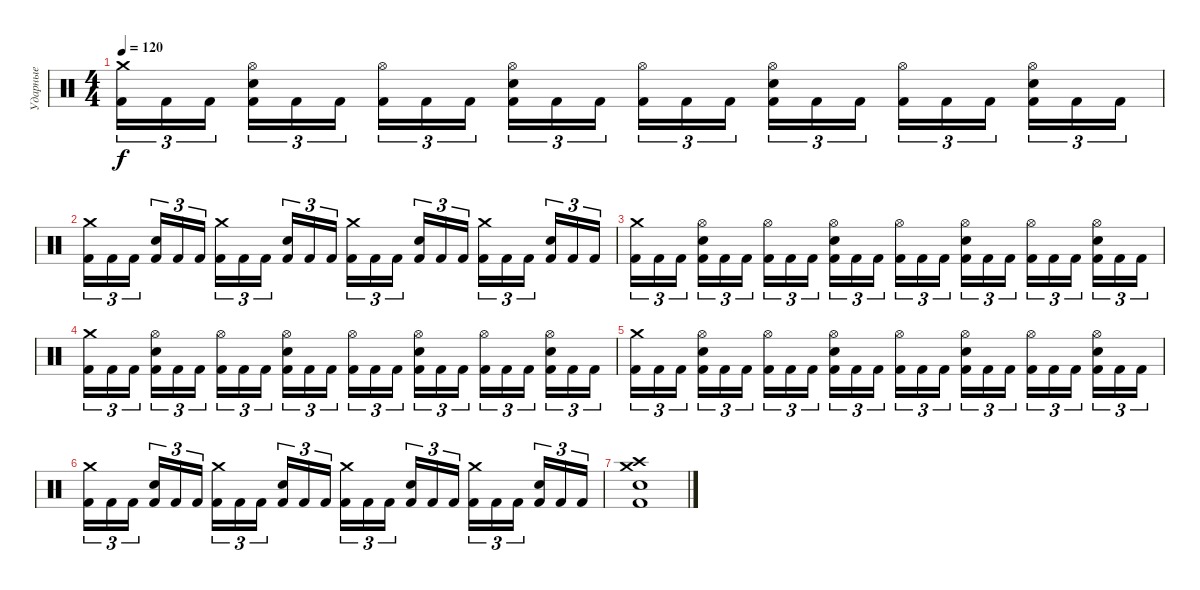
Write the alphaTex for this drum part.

\track ("Ударные" "Ударные") {instrument percussion}
\staff {score}
\articulation defaults
\ts (4 4)
\tempo 120
\clef neutral
\ks c
("Crash medium (hit)" "Kick (hit) 2").16{tu (3 2) dy f} "Kick (hit) 2".16{tu (3 2)} "Kick (hit) 2".16{tu (3 2) beam splitsecondary} ("Snare (hit) 2" "Kick (hit) 2" "Hi-Hat (open)").16{tu (3 2)} "Kick (hit) 2".16{tu (3 2)} "Kick (hit) 2".16{tu (3 2)} ("Hi-Hat (open)" "Kick (hit) 2").16{tu (3 2)} "Kick (hit) 2".16{tu (3 2)} "Kick (hit) 2".16{tu (3 2) beam splitsecondary} ("Snare (hit) 2" "Kick (hit) 2" "Hi-Hat (open)").16{tu (3 2)} "Kick (hit) 2".16{tu (3 2)} "Kick (hit) 2".16{tu (3 2)} ("Hi-Hat (open)" "Kick (hit) 2").16{tu (3 2)} "Kick (hit) 2".16{tu (3 2)} "Kick (hit) 2".16{tu (3 2) beam splitsecondary} ("Snare (hit) 2" "Kick (hit) 2" "Hi-Hat (open)").16{tu (3 2)} "Kick (hit) 2".16{tu (3 2)} "Kick (hit) 2".16{tu (3 2)} ("Hi-Hat (open)" "Kick (hit) 2").16{tu (3 2)} "Kick (hit) 2".16{tu (3 2)} "Kick (hit) 2".16{tu (3 2) beam splitsecondary} ("Snare (hit) 2" "Kick (hit) 2" "Hi-Hat (open)").16{tu (3 2)} "Kick (hit) 2".16{tu (3 2)} "Kick (hit) 2".16{tu (3 2)} |
("Crash medium (hit)" "Kick (hit) 2").16{tu (3 2)} "Kick (hit) 2".16{tu (3 2)} "Kick (hit) 2".16{tu (3 2) beam splitsecondary} ("Snare (hit) 2" "Kick (hit) 2").16{tu (3 2)} "Kick (hit) 2".16{tu (3 2)} "Kick (hit) 2".16{tu (3 2)} ("Kick (hit) 2" "Crash medium (hit)").16{tu (3 2)} "Kick (hit) 2".16{tu (3 2)} "Kick (hit) 2".16{tu (3 2) beam splitsecondary} ("Snare (hit) 2" "Kick (hit) 2").16{tu (3 2)} "Kick (hit) 2".16{tu (3 2)} "Kick (hit) 2".16{tu (3 2)} ("Kick (hit) 2" "Crash medium (hit)").16{tu (3 2)} "Kick (hit) 2".16{tu (3 2)} "Kick (hit) 2".16{tu (3 2) beam splitsecondary} ("Snare (hit) 2" "Kick (hit) 2").16{tu (3 2)} "Kick (hit) 2".16{tu (3 2)} "Kick (hit) 2".16{tu (3 2)} ("Kick (hit) 2" "Crash medium (hit)").16{tu (3 2)} "Kick (hit) 2".16{tu (3 2)} "Kick (hit) 2".16{tu (3 2) beam splitsecondary} ("Snare (hit) 2" "Kick (hit) 2").16{tu (3 2)} "Kick (hit) 2".16{tu (3 2)} "Kick (hit) 2".16{tu (3 2)} |
("Crash medium (hit)" "Kick (hit) 2").16{tu (3 2)} "Kick (hit) 2".16{tu (3 2)} "Kick (hit) 2".16{tu (3 2) beam splitsecondary} ("Snare (hit) 2" "Kick (hit) 2" "Hi-Hat (open)").16{tu (3 2)} "Kick (hit) 2".16{tu (3 2)} "Kick (hit) 2".16{tu (3 2)} ("Hi-Hat (open)" "Kick (hit) 2").16{tu (3 2)} "Kick (hit) 2".16{tu (3 2)} "Kick (hit) 2".16{tu (3 2) beam splitsecondary} ("Snare (hit) 2" "Kick (hit) 2" "Hi-Hat (open)").16{tu (3 2)} "Kick (hit) 2".16{tu (3 2)} "Kick (hit) 2".16{tu (3 2)} ("Hi-Hat (open)" "Kick (hit) 2").16{tu (3 2)} "Kick (hit) 2".16{tu (3 2)} "Kick (hit) 2".16{tu (3 2) beam splitsecondary} ("Snare (hit) 2" "Kick (hit) 2" "Hi-Hat (open)").16{tu (3 2)} "Kick (hit) 2".16{tu (3 2)} "Kick (hit) 2".16{tu (3 2)} ("Hi-Hat (open)" "Kick (hit) 2").16{tu (3 2)} "Kick (hit) 2".16{tu (3 2)} "Kick (hit) 2".16{tu (3 2) beam splitsecondary} ("Snare (hit) 2" "Kick (hit) 2" "Hi-Hat (open)").16{tu (3 2)} "Kick (hit) 2".16{tu (3 2)} "Kick (hit) 2".16{tu (3 2)} |
("Crash medium (hit)" "Kick (hit) 2").16{tu (3 2)} "Kick (hit) 2".16{tu (3 2)} "Kick (hit) 2".16{tu (3 2) beam splitsecondary} ("Snare (hit) 2" "Kick (hit) 2" "Hi-Hat (open)").16{tu (3 2)} "Kick (hit) 2".16{tu (3 2)} "Kick (hit) 2".16{tu (3 2)} ("Hi-Hat (open)" "Kick (hit) 2").16{tu (3 2)} "Kick (hit) 2".16{tu (3 2)} "Kick (hit) 2".16{tu (3 2) beam splitsecondary} ("Snare (hit) 2" "Kick (hit) 2" "Hi-Hat (open)").16{tu (3 2)} "Kick (hit) 2".16{tu (3 2)} "Kick (hit) 2".16{tu (3 2)} ("Hi-Hat (open)" "Kick (hit) 2").16{tu (3 2)} "Kick (hit) 2".16{tu (3 2)} "Kick (hit) 2".16{tu (3 2) beam splitsecondary} ("Snare (hit) 2" "Kick (hit) 2" "Hi-Hat (open)").16{tu (3 2)} "Kick (hit) 2".16{tu (3 2)} "Kick (hit) 2".16{tu (3 2)} ("Hi-Hat (open)" "Kick (hit) 2").16{tu (3 2)} "Kick (hit) 2".16{tu (3 2)} "Kick (hit) 2".16{tu (3 2) beam splitsecondary} ("Snare (hit) 2" "Kick (hit) 2" "Hi-Hat (open)").16{tu (3 2)} "Kick (hit) 2".16{tu (3 2)} "Kick (hit) 2".16{tu (3 2)} |
("Crash medium (hit)" "Kick (hit) 2").16{tu (3 2)} "Kick (hit) 2".16{tu (3 2)} "Kick (hit) 2".16{tu (3 2) beam splitsecondary} ("Snare (hit) 2" "Kick (hit) 2" "Hi-Hat (open)").16{tu (3 2)} "Kick (hit) 2".16{tu (3 2)} "Kick (hit) 2".16{tu (3 2)} ("Hi-Hat (open)" "Kick (hit) 2").16{tu (3 2)} "Kick (hit) 2".16{tu (3 2)} "Kick (hit) 2".16{tu (3 2) beam splitsecondary} ("Snare (hit) 2" "Kick (hit) 2" "Hi-Hat (open)").16{tu (3 2)} "Kick (hit) 2".16{tu (3 2)} "Kick (hit) 2".16{tu (3 2)} ("Hi-Hat (open)" "Kick (hit) 2").16{tu (3 2)} "Kick (hit) 2".16{tu (3 2)} "Kick (hit) 2".16{tu (3 2) beam splitsecondary} ("Snare (hit) 2" "Kick (hit) 2" "Hi-Hat (open)").16{tu (3 2)} "Kick (hit) 2".16{tu (3 2)} "Kick (hit) 2".16{tu (3 2)} ("Hi-Hat (open)" "Kick (hit) 2").16{tu (3 2)} "Kick (hit) 2".16{tu (3 2)} "Kick (hit) 2".16{tu (3 2) beam splitsecondary} ("Snare (hit) 2" "Kick (hit) 2" "Hi-Hat (open)").16{tu (3 2)} "Kick (hit) 2".16{tu (3 2)} "Kick (hit) 2".16{tu (3 2)} |
("Crash medium (hit)" "Kick (hit) 2").16{tu (3 2)} "Kick (hit) 2".16{tu (3 2)} "Kick (hit) 2".16{tu (3 2) beam splitsecondary} ("Snare (hit) 2" "Kick (hit) 2").16{tu (3 2)} "Kick (hit) 2".16{tu (3 2)} "Kick (hit) 2".16{tu (3 2)} ("Kick (hit) 2" "Crash medium (hit)").16{tu (3 2)} "Kick (hit) 2".16{tu (3 2)} "Kick (hit) 2".16{tu (3 2) beam splitsecondary} ("Snare (hit) 2" "Kick (hit) 2").16{tu (3 2)} "Kick (hit) 2".16{tu (3 2)} "Kick (hit) 2".16{tu (3 2)} ("Kick (hit) 2" "Crash medium (hit)").16{tu (3 2)} "Kick (hit) 2".16{tu (3 2)} "Kick (hit) 2".16{tu (3 2) beam splitsecondary} ("Snare (hit) 2" "Kick (hit) 2").16{tu (3 2)} "Kick (hit) 2".16{tu (3 2)} "Kick (hit) 2".16{tu (3 2)} ("Kick (hit) 2" "Crash medium (hit)").16{tu (3 2)} "Kick (hit) 2".16{tu (3 2)} "Kick (hit) 2".16{tu (3 2) beam splitsecondary} ("Snare (hit) 2" "Kick (hit) 2").16{tu (3 2)} "Kick (hit) 2".16{tu (3 2)} "Kick (hit) 2".16{tu (3 2)} |
("Kick (hit) 2" "Crash high (hit)" "Snare (hit) 2" "Crash medium (hit)").1
